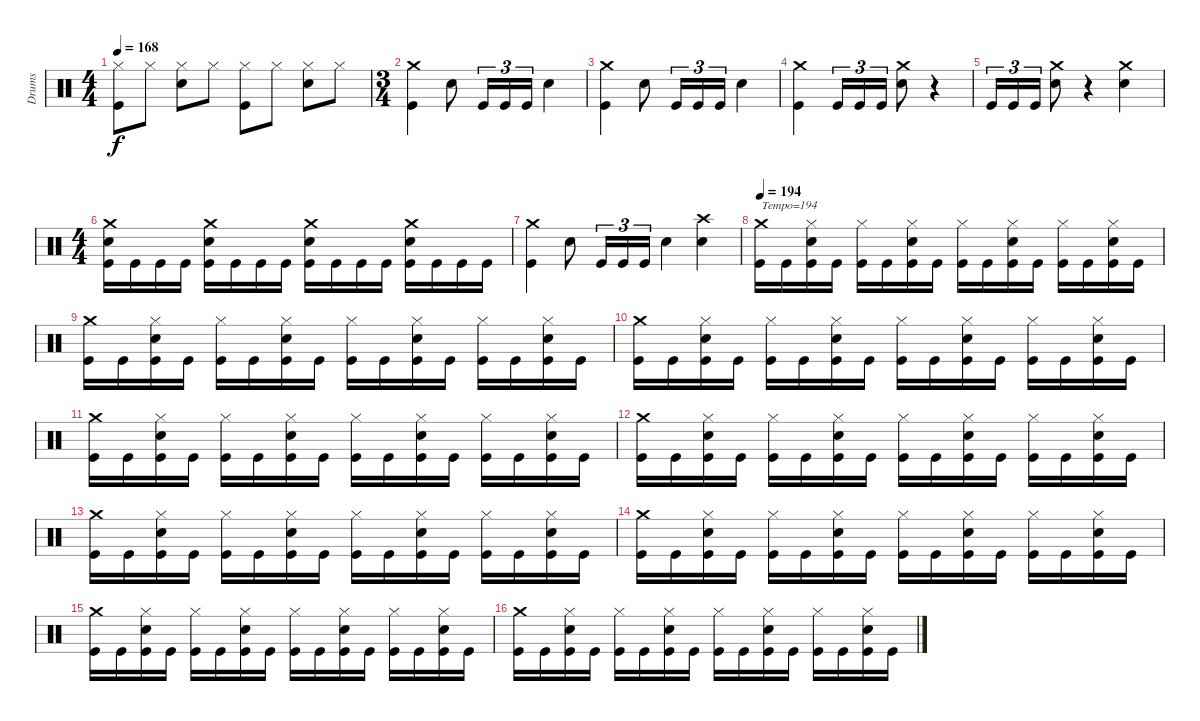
\track ("Drums" "Drums") {instrument percussion}
\staff {score}
\articulation defaults
\ts (4 4)
\tempo 168
\clef neutral
\ks c
("Hi-Hat (closed)" "Kick (hit)").8{dy f} "Hi-Hat (closed)".8 ("Hi-Hat (closed)" "Snare (hit) 2").8 "Hi-Hat (closed)".8 ("Hi-Hat (closed)" "Kick (hit)").8 "Hi-Hat (closed)".8 ("Hi-Hat (closed)" "Snare (hit) 2").8 "Hi-Hat (closed)".8 |
\ts (3 4)
("Crash medium (hit)" "Kick (hit)").4 "Snare (hit) 2".8 "Kick (hit)".16{tu (3 2)} "Kick (hit)".16{tu (3 2)} "Kick (hit)".16{tu (3 2)} "Snare (hit) 2".4 |
("Crash medium (hit)" "Kick (hit)").4 "Snare (hit) 2".8 "Kick (hit)".16{tu (3 2)} "Kick (hit)".16{tu (3 2)} "Kick (hit)".16{tu (3 2)} "Snare (hit) 2".4 |
("Crash medium (hit)" "Kick (hit)").4 "Kick (hit)".16{tu (3 2)} "Kick (hit)".16{tu (3 2)} "Kick (hit)".16{tu (3 2)} ("Crash medium (hit)" "Snare (hit) 2").8 r.4 |
"Kick (hit)".16{tu (3 2)} "Kick (hit)".16{tu (3 2)} "Kick (hit)".16{tu (3 2)} ("Crash medium (hit)" "Snare (hit) 2").8 r.4 ("Crash medium (hit)" "Snare (hit) 2").4 |
\ts (4 4)
("Crash medium (hit)" "Snare (hit) 2" "Kick (hit)").16 "Kick (hit)".16 "Kick (hit)".16 "Kick (hit)".16 ("Crash medium (hit)" "Snare (hit) 2" "Kick (hit)").16 "Kick (hit)".16 "Kick (hit)".16 "Kick (hit)".16 ("Crash medium (hit)" "Snare (hit) 2" "Kick (hit)").16 "Kick (hit)".16 "Kick (hit)".16 "Kick (hit)".16 ("Crash medium (hit)" "Snare (hit) 2" "Kick (hit)").16 "Kick (hit)".16 "Kick (hit)".16 "Kick (hit)".16 |
("Crash medium (hit)" "Kick (hit)").4 "Snare (hit) 2".8 "Kick (hit)".16{tu (3 2)} "Kick (hit)".16{tu (3 2)} "Kick (hit)".16{tu (3 2)} "Snare (hit) 2".4 ("Crash high (hit)" "Snare (hit) 2").4 |
\tempo 194
("Crash medium (hit)" "Kick (hit)").16{txt "Tempo=194"} "Kick (hit)".16 ("Hi-Hat (closed)" "Snare (hit) 2" "Kick (hit)").16 "Kick (hit)".16 ("Hi-Hat (closed)" "Kick (hit)").16 "Kick (hit)".16 ("Hi-Hat (closed)" "Snare (hit) 2" "Kick (hit)").16 "Kick (hit)".16 ("Hi-Hat (closed)" "Kick (hit)").16 "Kick (hit)".16 ("Hi-Hat (closed)" "Snare (hit) 2" "Kick (hit)").16 "Kick (hit)".16 ("Hi-Hat (closed)" "Kick (hit)").16 "Kick (hit)".16 ("Hi-Hat (closed)" "Snare (hit) 2" "Kick (hit)").16 "Kick (hit)".16 |
("Crash medium (hit)" "Kick (hit)").16 "Kick (hit)".16 ("Hi-Hat (closed)" "Snare (hit) 2" "Kick (hit)").16 "Kick (hit)".16 ("Hi-Hat (closed)" "Kick (hit)").16 "Kick (hit)".16 ("Hi-Hat (closed)" "Snare (hit) 2" "Kick (hit)").16 "Kick (hit)".16 ("Hi-Hat (closed)" "Kick (hit)").16 "Kick (hit)".16 ("Hi-Hat (closed)" "Snare (hit) 2" "Kick (hit)").16 "Kick (hit)".16 ("Hi-Hat (closed)" "Kick (hit)").16 "Kick (hit)".16 ("Hi-Hat (closed)" "Snare (hit) 2" "Kick (hit)").16 "Kick (hit)".16 |
("Crash medium (hit)" "Kick (hit)").16 "Kick (hit)".16 ("Hi-Hat (closed)" "Snare (hit) 2" "Kick (hit)").16 "Kick (hit)".16 ("Hi-Hat (closed)" "Kick (hit)").16 "Kick (hit)".16 ("Hi-Hat (closed)" "Snare (hit) 2" "Kick (hit)").16 "Kick (hit)".16 ("Hi-Hat (closed)" "Kick (hit)").16 "Kick (hit)".16 ("Hi-Hat (closed)" "Snare (hit) 2" "Kick (hit)").16 "Kick (hit)".16 ("Hi-Hat (closed)" "Kick (hit)").16 "Kick (hit)".16 ("Hi-Hat (closed)" "Snare (hit) 2" "Kick (hit)").16 "Kick (hit)".16 |
("Crash medium (hit)" "Kick (hit)").16 "Kick (hit)".16 ("Hi-Hat (closed)" "Snare (hit) 2" "Kick (hit)").16 "Kick (hit)".16 ("Hi-Hat (closed)" "Kick (hit)").16 "Kick (hit)".16 ("Hi-Hat (closed)" "Snare (hit) 2" "Kick (hit)").16 "Kick (hit)".16 ("Hi-Hat (closed)" "Kick (hit)").16 "Kick (hit)".16 ("Hi-Hat (closed)" "Snare (hit) 2" "Kick (hit)").16 "Kick (hit)".16 ("Hi-Hat (closed)" "Kick (hit)").16 "Kick (hit)".16 ("Hi-Hat (closed)" "Snare (hit) 2" "Kick (hit)").16 "Kick (hit)".16 |
("Crash medium (hit)" "Kick (hit)").16 "Kick (hit)".16 ("Hi-Hat (closed)" "Snare (hit) 2" "Kick (hit)").16 "Kick (hit)".16 ("Hi-Hat (closed)" "Kick (hit)").16 "Kick (hit)".16 ("Hi-Hat (closed)" "Snare (hit) 2" "Kick (hit)").16 "Kick (hit)".16 ("Hi-Hat (closed)" "Kick (hit)").16 "Kick (hit)".16 ("Hi-Hat (closed)" "Snare (hit) 2" "Kick (hit)").16 "Kick (hit)".16 ("Hi-Hat (closed)" "Kick (hit)").16 "Kick (hit)".16 ("Hi-Hat (closed)" "Snare (hit) 2" "Kick (hit)").16 "Kick (hit)".16 |
("Crash medium (hit)" "Kick (hit)").16 "Kick (hit)".16 ("Hi-Hat (closed)" "Snare (hit) 2" "Kick (hit)").16 "Kick (hit)".16 ("Hi-Hat (closed)" "Kick (hit)").16 "Kick (hit)".16 ("Hi-Hat (closed)" "Snare (hit) 2" "Kick (hit)").16 "Kick (hit)".16 ("Hi-Hat (closed)" "Kick (hit)").16 "Kick (hit)".16 ("Hi-Hat (closed)" "Snare (hit) 2" "Kick (hit)").16 "Kick (hit)".16 ("Hi-Hat (closed)" "Kick (hit)").16 "Kick (hit)".16 ("Hi-Hat (closed)" "Snare (hit) 2" "Kick (hit)").16 "Kick (hit)".16 |
("Crash medium (hit)" "Kick (hit)").16 "Kick (hit)".16 ("Hi-Hat (closed)" "Snare (hit) 2" "Kick (hit)").16 "Kick (hit)".16 ("Hi-Hat (closed)" "Kick (hit)").16 "Kick (hit)".16 ("Hi-Hat (closed)" "Snare (hit) 2" "Kick (hit)").16 "Kick (hit)".16 ("Hi-Hat (closed)" "Kick (hit)").16 "Kick (hit)".16 ("Hi-Hat (closed)" "Snare (hit) 2" "Kick (hit)").16 "Kick (hit)".16 ("Hi-Hat (closed)" "Kick (hit)").16 "Kick (hit)".16 ("Hi-Hat (closed)" "Snare (hit) 2" "Kick (hit)").16 "Kick (hit)".16 |
("Crash medium (hit)" "Kick (hit)").16 "Kick (hit)".16 ("Hi-Hat (closed)" "Snare (hit) 2" "Kick (hit)").16 "Kick (hit)".16 ("Hi-Hat (closed)" "Kick (hit)").16 "Kick (hit)".16 ("Hi-Hat (closed)" "Snare (hit) 2" "Kick (hit)").16 "Kick (hit)".16 ("Hi-Hat (closed)" "Kick (hit)").16 "Kick (hit)".16 ("Hi-Hat (closed)" "Snare (hit) 2" "Kick (hit)").16 "Kick (hit)".16 ("Hi-Hat (closed)" "Kick (hit)").16 "Kick (hit)".16 ("Hi-Hat (closed)" "Snare (hit) 2" "Kick (hit)").16 "Kick (hit)".16 |
("Crash medium (hit)" "Kick (hit)").16 "Kick (hit)".16 ("Hi-Hat (closed)" "Snare (hit) 2" "Kick (hit)").16 "Kick (hit)".16 ("Hi-Hat (closed)" "Kick (hit)").16 "Kick (hit)".16 ("Hi-Hat (closed)" "Snare (hit) 2" "Kick (hit)").16 "Kick (hit)".16 ("Hi-Hat (closed)" "Kick (hit)").16 "Kick (hit)".16 ("Hi-Hat (closed)" "Snare (hit) 2" "Kick (hit)").16 "Kick (hit)".16 ("Hi-Hat (closed)" "Kick (hit)").16 "Kick (hit)".16 ("Hi-Hat (closed)" "Snare (hit) 2" "Kick (hit)").16 "Kick (hit)".16
